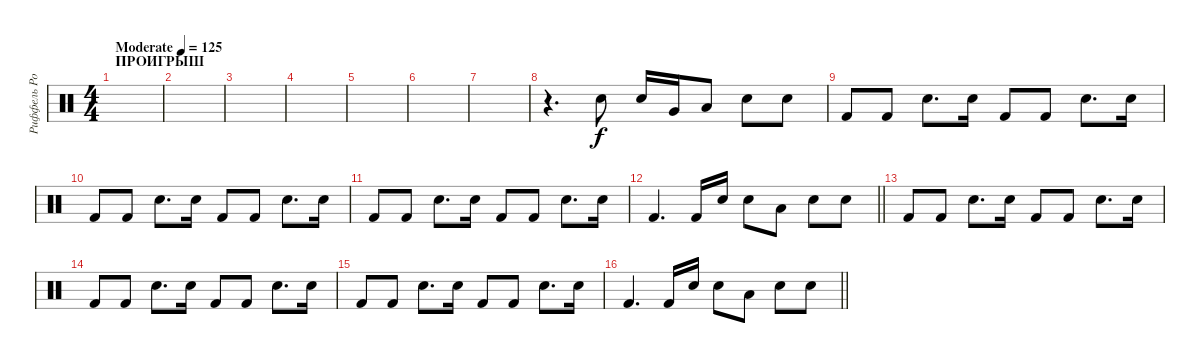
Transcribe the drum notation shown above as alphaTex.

\track ("Риффель Роман(главные)" "Риффель Ро") {instrument percussion}
\staff {score}
\articulation defaults
\ts (4 4)
\section ("" "ПРОИГРЫШ")
\tempo (125 "Moderate")
\clef neutral
\ks c
|
|
|
|
|
|
|
r.4{d} "Electric Snare (hit)".8 "Electric Snare (hit)".16 "Very Low Tom (hit)".16 "Low Floor Tom (hit)".8 "Electric Snare (hit)".8 "Electric Snare (hit)".8 |
"Kick (hit) 2".8 "Kick (hit) 2".8 "Electric Snare (hit)".8{d} "Electric Snare (hit)".16 "Kick (hit) 2".8 "Kick (hit) 2".8 "Electric Snare (hit)".8{d} "Electric Snare (hit)".16 |
"Kick (hit) 2".8 "Kick (hit) 2".8 "Electric Snare (hit)".8{d} "Electric Snare (hit)".16 "Kick (hit) 2".8 "Kick (hit) 2".8 "Electric Snare (hit)".8{d} "Electric Snare (hit)".16 |
"Kick (hit) 2".8 "Kick (hit) 2".8 "Electric Snare (hit)".8{d} "Electric Snare (hit)".16 "Kick (hit) 2".8 "Kick (hit) 2".8 "Electric Snare (hit)".8{d} "Electric Snare (hit)".16 |
\barLineRight lightlight "Kick (hit) 2".4{d} "Kick (hit) 2".16 "Electric Snare (hit)".16 "Electric Snare (hit)".8 "Low Tom (hit)".8 "Electric Snare (hit)".8 "Electric Snare (hit)".8
|
"Kick (hit) 2".8 "Kick (hit) 2".8 "Electric Snare (hit)".8{d} "Electric Snare (hit)".16 "Kick (hit) 2".8 "Kick (hit) 2".8 "Electric Snare (hit)".8{d} "Electric Snare (hit)".16 |
"Kick (hit) 2".8 "Kick (hit) 2".8 "Electric Snare (hit)".8{d} "Electric Snare (hit)".16 "Kick (hit) 2".8 "Kick (hit) 2".8 "Electric Snare (hit)".8{d} "Electric Snare (hit)".16 |
"Kick (hit) 2".8 "Kick (hit) 2".8 "Electric Snare (hit)".8{d} "Electric Snare (hit)".16 "Kick (hit) 2".8 "Kick (hit) 2".8 "Electric Snare (hit)".8{d} "Electric Snare (hit)".16 |
\barLineRight lightlight "Kick (hit) 2".4{d} "Kick (hit) 2".16 "Electric Snare (hit)".16 "Electric Snare (hit)".8 "Low Tom (hit)".8 "Electric Snare (hit)".8 "Electric Snare (hit)".8
